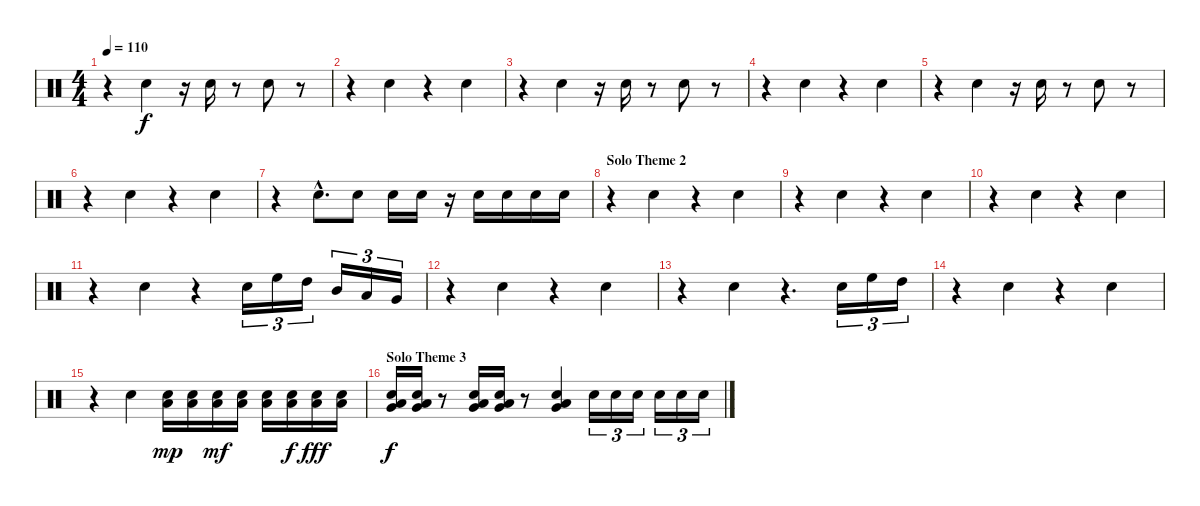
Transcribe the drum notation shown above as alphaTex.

\track "" {instrument percussion}
\staff {score}
\articulation defaults
\ts (4 4)
\tempo 110
\clef neutral
\ks c
r.4{dy f} "Electric Snare (hit)".4 r.16 "Electric Snare (hit)".16 r.8 "Electric Snare (hit)".8 r.8 |
r.4 "Electric Snare (hit)".4 r.4 "Electric Snare (hit)".4 |
r.4 "Electric Snare (hit)".4 r.16 "Electric Snare (hit)".16 r.8 "Electric Snare (hit)".8 r.8 |
r.4 "Electric Snare (hit)".4 r.4 "Electric Snare (hit)".4 |
r.4 "Electric Snare (hit)".4 r.16 "Electric Snare (hit)".16 r.8 "Electric Snare (hit)".8 r.8 |
r.4 "Electric Snare (hit)".4 r.4 "Electric Snare (hit)".4 |
r.4 "Electric Snare (hit)"{hac}.8{d} "Electric Snare (hit)".8 "Electric Snare (hit)".16 "Electric Snare (hit)".16 r.16 "Electric Snare (hit)".16 "Electric Snare (hit)".16 "Electric Snare (hit)".16 "Electric Snare (hit)".16 |
\section ("" "Solo Theme 2")
r.4 "Electric Snare (hit)".4 r.4 "Electric Snare (hit)".4 |
r.4 "Electric Snare (hit)".4 r.4 "Electric Snare (hit)".4 |
r.4 "Electric Snare (hit)".4 r.4 "Electric Snare (hit)".4 |
r.4 "Electric Snare (hit)".4 r.4 "Electric Snare (hit)".16{tu (3 2)} "High Floor Tom (hit)".16{tu (3 2)} "High Tom (hit)".16{tu (3 2)} "Mid Tom (hit)".16{tu (3 2)} "Low Tom (hit)".16{tu (3 2)} "Very Low Tom (hit)".16{tu (3 2)} |
r.4 "Electric Snare (hit)".4 r.4 "Electric Snare (hit)".4 |
r.4 "Electric Snare (hit)".4 r.4{d} "Electric Snare (hit)".16{tu (3 2)} "High Floor Tom (hit)".16{tu (3 2)} "High Tom (hit)".16{tu (3 2)} |
r.4 "Electric Snare (hit)".4 r.4 "Electric Snare (hit)".4 |
r.4 "Electric Snare (hit)".4 ("Low Tom (hit)" "Electric Snare (hit)").16{dy mp} ("Low Tom (hit)" "Electric Snare (hit)").16 ("Low Tom (hit)" "Electric Snare (hit)").16{dy mf} ("Low Tom (hit)" "Electric Snare (hit)").16 ("Low Tom (hit)" "Electric Snare (hit)").16 ("Low Tom (hit)" "Electric Snare (hit)").16{dy f} ("Low Tom (hit)" "Electric Snare (hit)").16{dy fff} ("Low Tom (hit)" "Electric Snare (hit)").16 |
\section ("" "Solo Theme 3")
("Electric Snare (hit)" "Very Low Tom (hit)" "Low Tom (hit)").16{dy f} ("Electric Snare (hit)" "Very Low Tom (hit)" "Low Tom (hit)").16 r.8 ("Electric Snare (hit)" "Very Low Tom (hit)" "Low Tom (hit)").16 ("Electric Snare (hit)" "Very Low Tom (hit)" "Low Tom (hit)").16 r.8 ("Electric Snare (hit)" "Very Low Tom (hit)" "Low Tom (hit)").4 "Electric Snare (hit)".16{tu (3 2)} "Electric Snare (hit)".16{tu (3 2)} "Electric Snare (hit)".16{tu (3 2)} "Electric Snare (hit)".16{tu (3 2)} "Electric Snare (hit)".16{tu (3 2)} "Electric Snare (hit)".16{tu (3 2)}
